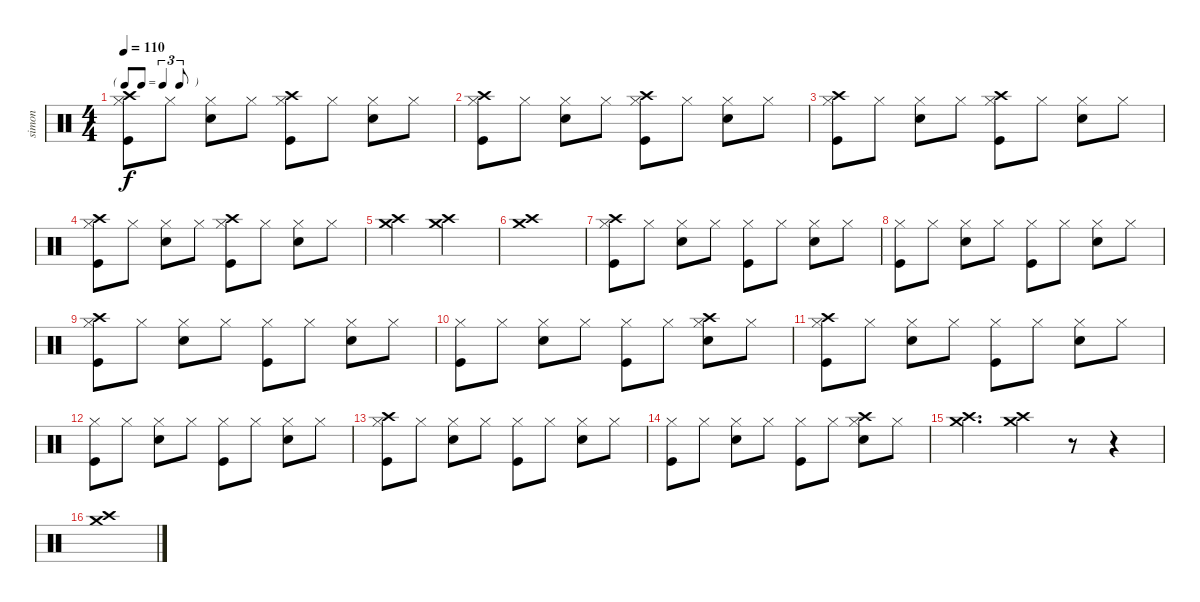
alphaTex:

\track ("simon" "simon") {instrument percussion}
\staff {score}
\articulation defaults
\ts (4 4)
\tf triplet8th
\tempo 110
\clef neutral
\ks c
("Hi-Hat (closed)" "Kick (hit)" "Crash high (hit)").8{dy f} "Hi-Hat (closed)".8 ("Hi-Hat (closed)" "Snare (hit) 2").8 "Hi-Hat (closed)".8 ("Hi-Hat (closed)" "Kick (hit)" "Crash high (hit)").8 "Hi-Hat (closed)".8 ("Hi-Hat (closed)" "Snare (hit) 2").8 "Hi-Hat (closed)".8 |
("Hi-Hat (closed)" "Kick (hit)" "Crash high (hit)").8 "Hi-Hat (closed)".8 ("Hi-Hat (closed)" "Snare (hit) 2").8 "Hi-Hat (closed)".8 ("Hi-Hat (closed)" "Kick (hit)" "Crash high (hit)").8 "Hi-Hat (closed)".8 ("Hi-Hat (closed)" "Snare (hit) 2").8 "Hi-Hat (closed)".8 |
("Hi-Hat (closed)" "Kick (hit)" "Crash high (hit)").8 "Hi-Hat (closed)".8 ("Hi-Hat (closed)" "Snare (hit) 2").8 "Hi-Hat (closed)".8 ("Hi-Hat (closed)" "Kick (hit)" "Crash high (hit)").8 "Hi-Hat (closed)".8 ("Hi-Hat (closed)" "Snare (hit) 2").8 "Hi-Hat (closed)".8 |
("Hi-Hat (closed)" "Kick (hit)" "Crash high (hit)").8 "Hi-Hat (closed)".8 ("Hi-Hat (closed)" "Snare (hit) 2").8 "Hi-Hat (closed)".8 ("Hi-Hat (closed)" "Kick (hit)" "Crash high (hit)").8 "Hi-Hat (closed)".8 ("Hi-Hat (closed)" "Snare (hit) 2").8 "Hi-Hat (closed)".8 |
("Crash medium (hit)" "Crash high (hit)").2 ("Crash medium (hit)" "Crash high (hit)").2 |
("Crash high (hit)" "Crash medium (hit)").1 |
("Hi-Hat (closed)" "Kick (hit)" "Crash high (hit)").8 "Hi-Hat (closed)".8 ("Hi-Hat (closed)" "Snare (hit) 2").8 "Hi-Hat (closed)".8 ("Hi-Hat (closed)" "Kick (hit)").8 "Hi-Hat (closed)".8 ("Hi-Hat (closed)" "Snare (hit) 2").8 "Hi-Hat (closed)".8 |
("Hi-Hat (closed)" "Kick (hit)").8 "Hi-Hat (closed)".8 ("Hi-Hat (closed)" "Snare (hit) 2").8 "Hi-Hat (closed)".8 ("Hi-Hat (closed)" "Kick (hit)").8 "Hi-Hat (closed)".8 ("Hi-Hat (closed)" "Snare (hit) 2").8 "Hi-Hat (closed)".8 |
("Hi-Hat (closed)" "Kick (hit)" "Crash high (hit)").8 "Hi-Hat (closed)".8 ("Hi-Hat (closed)" "Snare (hit) 2").8 "Hi-Hat (closed)".8 ("Hi-Hat (closed)" "Kick (hit)").8 "Hi-Hat (closed)".8 ("Hi-Hat (closed)" "Snare (hit) 2").8 "Hi-Hat (closed)".8 |
("Hi-Hat (closed)" "Kick (hit)").8 "Hi-Hat (closed)".8 ("Hi-Hat (closed)" "Snare (hit) 2").8 "Hi-Hat (closed)".8 ("Hi-Hat (closed)" "Kick (hit)").8 "Hi-Hat (closed)".8 ("Hi-Hat (closed)" "Snare (hit) 2" "Crash high (hit)").8 "Hi-Hat (closed)".8 |
("Hi-Hat (closed)" "Kick (hit)" "Crash high (hit)").8 "Hi-Hat (closed)".8 ("Hi-Hat (closed)" "Snare (hit) 2").8 "Hi-Hat (closed)".8 ("Hi-Hat (closed)" "Kick (hit)").8 "Hi-Hat (closed)".8 ("Hi-Hat (closed)" "Snare (hit) 2").8 "Hi-Hat (closed)".8 |
("Hi-Hat (closed)" "Kick (hit)").8 "Hi-Hat (closed)".8 ("Hi-Hat (closed)" "Snare (hit) 2").8 "Hi-Hat (closed)".8 ("Hi-Hat (closed)" "Kick (hit)").8 "Hi-Hat (closed)".8 ("Hi-Hat (closed)" "Snare (hit) 2").8 "Hi-Hat (closed)".8 |
("Hi-Hat (closed)" "Kick (hit)" "Crash high (hit)").8 "Hi-Hat (closed)".8 ("Hi-Hat (closed)" "Snare (hit) 2").8 "Hi-Hat (closed)".8 ("Hi-Hat (closed)" "Kick (hit)").8 "Hi-Hat (closed)".8 ("Hi-Hat (closed)" "Snare (hit) 2").8 "Hi-Hat (closed)".8 |
("Hi-Hat (closed)" "Kick (hit)").8 "Hi-Hat (closed)".8 ("Hi-Hat (closed)" "Snare (hit) 2").8 "Hi-Hat (closed)".8 ("Hi-Hat (closed)" "Kick (hit)").8 "Hi-Hat (closed)".8 ("Hi-Hat (closed)" "Snare (hit) 2" "Crash high (hit)").8 "Hi-Hat (closed)".8 |
("Crash high (hit)" "Crash medium (hit)").4{d} ("Crash medium (hit)" "Crash high (hit)").4 r.8 r.4 |
("Crash medium (hit)" "Crash high (hit)").1
